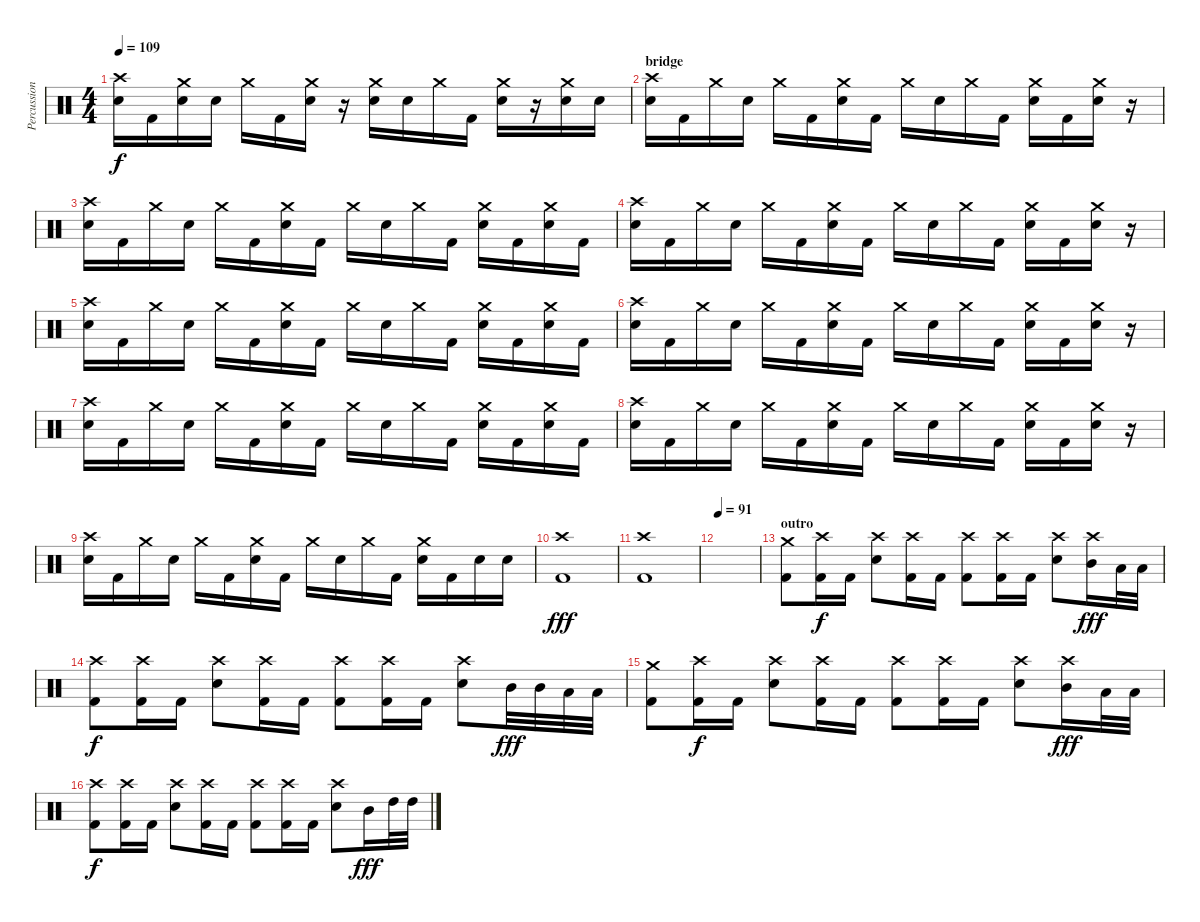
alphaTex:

\track ("Percussion" "Percussion") {instrument percussion}
\staff {score}
\articulation defaults
\ts (4 4)
\tempo 109
\clef neutral
\ks c
("Crash high (hit)" "Electric Snare (hit)").16{dy f} "Kick (hit) 2".16 ("Crash medium (hit)" "Electric Snare (hit)").16 "Electric Snare (hit)".16 "Crash medium (hit)".16 "Kick (hit) 2".16 ("Crash medium (hit)" "Electric Snare (hit)").16 r.16 ("Crash medium (hit)" "Electric Snare (hit)").16 "Electric Snare (hit)".16 "Crash medium (hit)".16 "Kick (hit) 2".16 ("Crash medium (hit)" "Electric Snare (hit)").16 r.16 ("Crash medium (hit)" "Electric Snare (hit)").16 "Electric Snare (hit)".16 |
\section ("" "bridge")
("Crash high (hit)" "Electric Snare (hit)").16 "Kick (hit) 2".16 "Crash medium (hit)".16 "Electric Snare (hit)".16 "Crash medium (hit)".16 "Kick (hit) 2".16 ("Crash medium (hit)" "Electric Snare (hit)").16 "Kick (hit) 2".16 "Crash medium (hit)".16 "Electric Snare (hit)".16 "Crash medium (hit)".16 "Kick (hit) 2".16 ("Crash medium (hit)" "Electric Snare (hit)").16 "Kick (hit) 2".16 ("Crash medium (hit)" "Electric Snare (hit)").16 r.16 |
("Crash high (hit)" "Electric Snare (hit)").16 "Kick (hit) 2".16 "Crash medium (hit)".16 "Electric Snare (hit)".16 "Crash medium (hit)".16 "Kick (hit) 2".16 ("Crash medium (hit)" "Electric Snare (hit)").16 "Kick (hit) 2".16 "Crash medium (hit)".16 "Electric Snare (hit)".16 "Crash medium (hit)".16 "Kick (hit) 2".16 ("Crash medium (hit)" "Electric Snare (hit)").16 "Kick (hit) 2".16 ("Crash medium (hit)" "Electric Snare (hit)").16 "Kick (hit) 2".16 |
("Crash high (hit)" "Electric Snare (hit)").16 "Kick (hit) 2".16 "Crash medium (hit)".16 "Electric Snare (hit)".16 "Crash medium (hit)".16 "Kick (hit) 2".16 ("Crash medium (hit)" "Electric Snare (hit)").16 "Kick (hit) 2".16 "Crash medium (hit)".16 "Electric Snare (hit)".16 "Crash medium (hit)".16 "Kick (hit) 2".16 ("Crash medium (hit)" "Electric Snare (hit)").16 "Kick (hit) 2".16 ("Crash medium (hit)" "Electric Snare (hit)").16 r.16 |
("Crash high (hit)" "Electric Snare (hit)").16 "Kick (hit) 2".16 "Crash medium (hit)".16 "Electric Snare (hit)".16 "Crash medium (hit)".16 "Kick (hit) 2".16 ("Crash medium (hit)" "Electric Snare (hit)").16 "Kick (hit) 2".16 "Crash medium (hit)".16 "Electric Snare (hit)".16 "Crash medium (hit)".16 "Kick (hit) 2".16 ("Crash medium (hit)" "Electric Snare (hit)").16 "Kick (hit) 2".16 ("Crash medium (hit)" "Electric Snare (hit)").16 "Kick (hit) 2".16 |
("Crash high (hit)" "Electric Snare (hit)").16 "Kick (hit) 2".16 "Crash medium (hit)".16 "Electric Snare (hit)".16 "Crash medium (hit)".16 "Kick (hit) 2".16 ("Crash medium (hit)" "Electric Snare (hit)").16 "Kick (hit) 2".16 "Crash medium (hit)".16 "Electric Snare (hit)".16 "Crash medium (hit)".16 "Kick (hit) 2".16 ("Crash medium (hit)" "Electric Snare (hit)").16 "Kick (hit) 2".16 ("Crash medium (hit)" "Electric Snare (hit)").16 r.16 |
("Crash high (hit)" "Electric Snare (hit)").16 "Kick (hit) 2".16 "Crash medium (hit)".16 "Electric Snare (hit)".16 "Crash medium (hit)".16 "Kick (hit) 2".16 ("Crash medium (hit)" "Electric Snare (hit)").16 "Kick (hit) 2".16 "Crash medium (hit)".16 "Electric Snare (hit)".16 "Crash medium (hit)".16 "Kick (hit) 2".16 ("Crash medium (hit)" "Electric Snare (hit)").16 "Kick (hit) 2".16 ("Crash medium (hit)" "Electric Snare (hit)").16 "Kick (hit) 2".16 |
("Crash high (hit)" "Electric Snare (hit)").16 "Kick (hit) 2".16 "Crash medium (hit)".16 "Electric Snare (hit)".16 "Crash medium (hit)".16 "Kick (hit) 2".16 ("Crash medium (hit)" "Electric Snare (hit)").16 "Kick (hit) 2".16 "Crash medium (hit)".16 "Electric Snare (hit)".16 "Crash medium (hit)".16 "Kick (hit) 2".16 ("Crash medium (hit)" "Electric Snare (hit)").16 "Kick (hit) 2".16 ("Crash medium (hit)" "Electric Snare (hit)").16 r.16 |
("Crash high (hit)" "Electric Snare (hit)").16 "Kick (hit) 2".16 "Crash medium (hit)".16 "Electric Snare (hit)".16 "Crash medium (hit)".16 "Kick (hit) 2".16 ("Crash medium (hit)" "Electric Snare (hit)").16 "Kick (hit) 2".16 "Crash medium (hit)".16 "Electric Snare (hit)".16 "Crash medium (hit)".16 "Kick (hit) 2".16 ("Crash medium (hit)" "Electric Snare (hit)").16 "Kick (hit) 2".16 "Electric Snare (hit)".16 "Electric Snare (hit)".16 |
("Crash high (hit)" "Kick (hit) 2").1{dy fff} |
("Crash high (hit)" "Kick (hit) 2").1 |
\section ("" "")
\tempo 91
|
\section ("" "outro")
("Crash medium (hit)" "Kick (hit) 2").8 ("Crash high (hit)" "Kick (hit) 2").16{dy f} "Kick (hit) 2".16 ("Crash high (hit)" "Electric Snare (hit)").8 ("Crash high (hit)" "Kick (hit) 2").16 "Kick (hit) 2".16 ("Crash high (hit)" "Kick (hit) 2").8 ("Crash high (hit)" "Kick (hit) 2").16 "Kick (hit) 2".16 ("Crash high (hit)" "Electric Snare (hit)").8 ("Crash high (hit)" "Mid Tom (hit)").16{dy fff} "Low Tom (hit)".32 "Low Tom (hit)".32 |
("Crash high (hit)" "Kick (hit) 2").8{dy f} ("Crash high (hit)" "Kick (hit) 2").16 "Kick (hit) 2".16 ("Crash high (hit)" "Electric Snare (hit)").8 ("Crash high (hit)" "Kick (hit) 2").16 "Kick (hit) 2".16 ("Crash high (hit)" "Kick (hit) 2").8 ("Crash high (hit)" "Kick (hit) 2").16 "Kick (hit) 2".16 ("Crash high (hit)" "Electric Snare (hit)").8 "Mid Tom (hit)".32{dy fff} "Mid Tom (hit)".32 "Low Tom (hit)".32 "Low Tom (hit)".32 |
("Crash medium (hit)" "Kick (hit) 2").8 ("Crash high (hit)" "Kick (hit) 2").16{dy f} "Kick (hit) 2".16 ("Crash high (hit)" "Electric Snare (hit)").8 ("Crash high (hit)" "Kick (hit) 2").16 "Kick (hit) 2".16 ("Crash high (hit)" "Kick (hit) 2").8 ("Crash high (hit)" "Kick (hit) 2").16 "Kick (hit) 2".16 ("Crash high (hit)" "Electric Snare (hit)").8 ("Crash high (hit)" "Mid Tom (hit)").16{dy fff} "Low Tom (hit)".32 "Low Tom (hit)".32 |
("Crash high (hit)" "Kick (hit) 2").8{dy f} ("Crash high (hit)" "Kick (hit) 2").16 "Kick (hit) 2".16 ("Crash high (hit)" "Electric Snare (hit)").8 ("Crash high (hit)" "Kick (hit) 2").16 "Kick (hit) 2".16 ("Crash high (hit)" "Kick (hit) 2").8 ("Crash high (hit)" "Kick (hit) 2").16 "Kick (hit) 2".16 ("Crash high (hit)" "Electric Snare (hit)").8 "Mid Tom (hit)".16{dy fff} "High Tom (hit)".32 "High Tom (hit)".32
